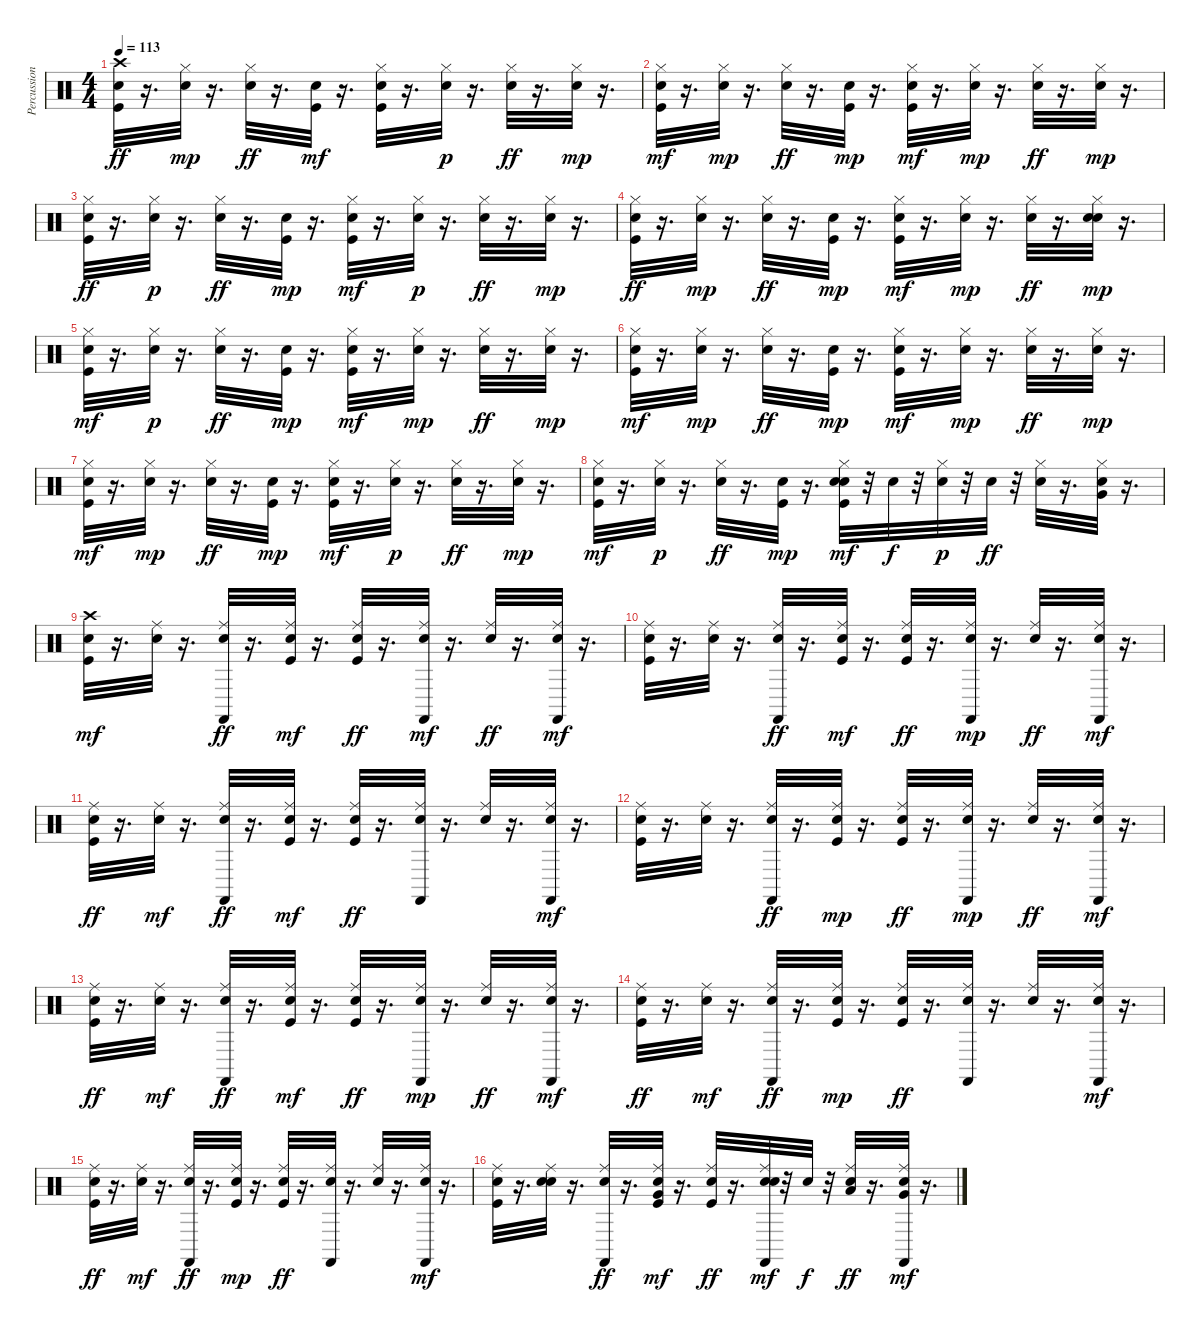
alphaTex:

\track ("Percussions" "Percussion") {instrument percussion}
\staff {score}
\articulation defaults
\ts (4 4)
\tempo 113
\clef neutral
\ks c
("Kick (hit)" "Snare (hit) 2" "Crash high (hit)").32{dy ff} r.16{d} ("Snare (hit) 2" "Hi-Hat (closed)").32{dy mp} r.16{d} ("Hand Clap (hit)" "Hi-Hat (closed)").32{dy ff} r.16{d} ("Kick (hit)" "Snare (hit) 2").32{dy mf} r.16{d} ("Kick (hit)" "Snare (hit) 2" "Hi-Hat (closed)").32 r.16{d} ("Snare (hit) 2" "Hi-Hat (closed)").32{dy p} r.16{d} ("Hand Clap (hit)" "Hi-Hat (closed)").32{dy ff} r.16{d} ("Snare (hit) 2" "Hi-Hat (closed)").32{dy mp} r.16{d} |
("Kick (hit)" "Snare (hit) 2" "Hi-Hat (closed)").32{dy mf} r.16{d} ("Snare (hit) 2" "Hi-Hat (closed)").32{dy mp} r.16{d} ("Hand Clap (hit)" "Hi-Hat (closed)").32{dy ff} r.16{d} ("Kick (hit)" "Snare (hit) 2").32{dy mp} r.16{d} ("Kick (hit)" "Snare (hit) 2" "Hi-Hat (closed)").32{dy mf} r.16{d} ("Snare (hit) 2" "Hi-Hat (closed)").32{dy mp} r.16{d} ("Hand Clap (hit)" "Hi-Hat (closed)").32{dy ff} r.16{d} ("Snare (hit) 2" "Hi-Hat (closed)").32{dy mp} r.16{d} |
("Kick (hit)" "Snare (hit) 2" "Hi-Hat (closed)").32{dy ff} r.16{d} ("Snare (hit) 2" "Hi-Hat (closed)").32{dy p} r.16{d} ("Hand Clap (hit)" "Hi-Hat (closed)").32{dy ff} r.16{d} ("Kick (hit)" "Snare (hit) 2").32{dy mp} r.16{d} ("Kick (hit)" "Snare (hit) 2" "Hi-Hat (closed)").32{dy mf} r.16{d} ("Snare (hit) 2" "Hi-Hat (closed)").32{dy p} r.16{d} ("Hand Clap (hit)" "Hi-Hat (closed)").32{dy ff} r.16{d} ("Snare (hit) 2" "Hi-Hat (closed)").32{dy mp} r.16{d} |
("Kick (hit)" "Snare (hit) 2" "Hi-Hat (closed)").32{dy ff} r.16{d} ("Snare (hit) 2" "Hi-Hat (closed)").32{dy mp} r.16{d} ("Hand Clap (hit)" "Hi-Hat (closed)").32{dy ff} r.16{d} ("Kick (hit)" "Snare (hit) 2").32{dy mp} r.16{d} ("Kick (hit)" "Snare (hit) 2" "Hi-Hat (closed)").32{dy mf} r.16{d} ("Snare (hit) 2" "Hi-Hat (closed)").32{dy mp} r.16{d} ("Hand Clap (hit)" "Hi-Hat (closed)").32{dy ff} r.16{d} ("Snare (hit) 2" "Hand Clap (hit)" "Hi-Hat (closed)").32{dy mp} r.16{d} |
("Kick (hit)" "Snare (hit) 2" "Hi-Hat (closed)").32{dy mf} r.16{d} ("Snare (hit) 2" "Hi-Hat (closed)").32{dy p} r.16{d} ("Hand Clap (hit)" "Hi-Hat (closed)").32{dy ff} r.16{d} ("Kick (hit)" "Snare (hit) 2").32{dy mp} r.16{d} ("Kick (hit)" "Snare (hit) 2" "Hi-Hat (closed)").32{dy mf} r.16{d} ("Snare (hit) 2" "Hi-Hat (closed)").32{dy mp} r.16{d} ("Hand Clap (hit)" "Hi-Hat (closed)").32{dy ff} r.16{d} ("Snare (hit) 2" "Hi-Hat (closed)").32{dy mp} r.16{d} |
("Kick (hit)" "Snare (hit) 2" "Hi-Hat (closed)").32{dy mf} r.16{d} ("Snare (hit) 2" "Hi-Hat (closed)").32{dy mp} r.16{d} ("Hand Clap (hit)" "Hi-Hat (closed)").32{dy ff} r.16{d} ("Kick (hit)" "Snare (hit) 2").32{dy mp} r.16{d} ("Kick (hit)" "Snare (hit) 2" "Hi-Hat (closed)").32{dy mf} r.16{d} ("Snare (hit) 2" "Hi-Hat (closed)").32{dy mp} r.16{d} ("Hand Clap (hit)" "Hi-Hat (closed)").32{dy ff} r.16{d} ("Snare (hit) 2" "Hi-Hat (closed)").32{dy mp} r.16{d} |
("Kick (hit)" "Snare (hit) 2" "Hi-Hat (closed)").32{dy mf} r.16{d} ("Snare (hit) 2" "Hi-Hat (closed)").32{dy mp} r.16{d} ("Hand Clap (hit)" "Hi-Hat (closed)").32{dy ff} r.16{d} ("Kick (hit)" "Snare (hit) 2").32{dy mp} r.16{d} ("Kick (hit)" "Snare (hit) 2" "Hi-Hat (closed)").32{dy mf} r.16{d} ("Snare (hit) 2" "Hi-Hat (closed)").32{dy p} r.16{d} ("Hand Clap (hit)" "Hi-Hat (closed)").32{dy ff} r.16{d} ("Snare (hit) 2" "Hi-Hat (closed)").32{dy mp} r.16{d} |
("Kick (hit)" "Snare (hit) 2" "Hi-Hat (closed)").32{dy mf} r.16{d} ("Snare (hit) 2" "Hi-Hat (closed)").32{dy p} r.16{d} ("Hand Clap (hit)" "Hi-Hat (closed)").32{dy ff} r.16{d} ("Kick (hit)" "Snare (hit) 2").32{dy mp} r.16{d} ("Kick (hit)" "Snare (hit) 2" "Hand Clap (hit)" "Hi-Hat (closed)").32{dy mf} r.32 "Snare (hit) 2".32{dy f} r.32 ("Snare (hit) 2" "Hi-Hat (closed)").32{dy p} r.32 "Snare (hit) 2".32{dy ff} r.32 ("Hand Clap (hit)" "Hi-Hat (closed)").32 r.16{d} ("Snare (hit) 2" "Hi-Hat (closed)" "Very Low Tom (hit)").32 r.16{d} |
("Kick (hit)" "Snare (hit) 2" "Crash high (hit)").32{dy mf} r.16{d} ("Snare (hit) 2" "Ride (middle)").32 r.16{d} ("Hand Clap (hit)" "Ride (middle)" "Castanets (hit)").32{dy ff} r.16{d} ("Kick (hit)" "Snare (hit) 2" "Ride (middle)").32{dy mf} r.16{d} ("Kick (hit)" "Snare (hit) 2" "Ride (middle)").32{dy ff} r.16{d} ("Snare (hit) 2" "Ride (middle)" "Castanets (hit)").32{dy mf} r.16{d} ("Hand Clap (hit)" "Ride (middle)").32{dy ff} r.16{d} ("Snare (hit) 2" "Ride (middle)" "Castanets (hit)").32{dy mf} r.16{d} |
("Kick (hit)" "Snare (hit) 2" "Ride (middle)").32 r.16{d} ("Snare (hit) 2" "Ride (middle)").32 r.16{d} ("Hand Clap (hit)" "Ride (middle)" "Castanets (hit)").32{dy ff} r.16{d} ("Kick (hit)" "Snare (hit) 2" "Ride (middle)").32{dy mf} r.16{d} ("Kick (hit)" "Snare (hit) 2" "Ride (middle)").32{dy ff} r.16{d} ("Snare (hit) 2" "Ride (middle)" "Castanets (hit)").32{dy mp} r.16{d} ("Hand Clap (hit)" "Ride (middle)").32{dy ff} r.16{d} ("Snare (hit) 2" "Ride (middle)" "Castanets (hit)").32{dy mf} r.16{d} |
("Kick (hit)" "Snare (hit) 2" "Ride (middle)").32{dy ff} r.16{d} ("Snare (hit) 2" "Ride (middle)").32{dy mf} r.16{d} ("Hand Clap (hit)" "Ride (middle)" "Castanets (hit)").32{dy ff} r.16{d} ("Kick (hit)" "Snare (hit) 2" "Ride (middle)").32{dy mf} r.16{d} ("Kick (hit)" "Snare (hit) 2" "Ride (middle)").32{dy ff} r.16{d} ("Snare (hit) 2" "Ride (middle)" "Castanets (hit)").32 r.16{d} ("Hand Clap (hit)" "Ride (middle)").32 r.16{d} ("Snare (hit) 2" "Ride (middle)" "Castanets (hit)").32{dy mf} r.16{d} |
("Kick (hit)" "Snare (hit) 2" "Ride (middle)").32 r.16{d} ("Snare (hit) 2" "Ride (middle)").32 r.16{d} ("Hand Clap (hit)" "Ride (middle)" "Castanets (hit)").32{dy ff} r.16{d} ("Kick (hit)" "Snare (hit) 2" "Ride (middle)").32{dy mp} r.16{d} ("Kick (hit)" "Snare (hit) 2" "Ride (middle)").32{dy ff} r.16{d} ("Snare (hit) 2" "Ride (middle)" "Castanets (hit)").32{dy mp} r.16{d} ("Hand Clap (hit)" "Ride (middle)").32{dy ff} r.16{d} ("Snare (hit) 2" "Ride (middle)" "Castanets (hit)").32{dy mf} r.16{d} |
("Kick (hit)" "Snare (hit) 2" "Ride (middle)").32{dy ff} r.16{d} ("Snare (hit) 2" "Ride (middle)").32{dy mf} r.16{d} ("Hand Clap (hit)" "Ride (middle)" "Castanets (hit)").32{dy ff} r.16{d} ("Kick (hit)" "Snare (hit) 2" "Ride (middle)").32{dy mf} r.16{d} ("Kick (hit)" "Snare (hit) 2" "Ride (middle)").32{dy ff} r.16{d} ("Snare (hit) 2" "Ride (middle)" "Castanets (hit)").32{dy mp} r.16{d} ("Hand Clap (hit)" "Ride (middle)").32{dy ff} r.16{d} ("Snare (hit) 2" "Ride (middle)" "Castanets (hit)").32{dy mf} r.16{d} |
("Kick (hit)" "Snare (hit) 2" "Ride (middle)").32{dy ff} r.16{d} ("Snare (hit) 2" "Ride (middle)").32{dy mf} r.16{d} ("Hand Clap (hit)" "Ride (middle)" "Castanets (hit)").32{dy ff} r.16{d} ("Kick (hit)" "Snare (hit) 2" "Ride (middle)").32{dy mp} r.16{d} ("Kick (hit)" "Snare (hit) 2" "Ride (middle)").32{dy ff} r.16{d} ("Snare (hit) 2" "Ride (middle)" "Castanets (hit)").32 r.16{d} ("Hand Clap (hit)" "Ride (middle)").32 r.16{d} ("Snare (hit) 2" "Ride (middle)" "Castanets (hit)").32{dy mf} r.16{d} |
("Kick (hit)" "Snare (hit) 2" "Ride (middle)").32{dy ff} r.16{d} ("Snare (hit) 2" "Ride (middle)").32{dy mf} r.16{d} ("Hand Clap (hit)" "Ride (middle)" "Castanets (hit)").32{dy ff} r.16{d} ("Kick (hit)" "Snare (hit) 2" "Ride (middle)").32{dy mp} r.16{d} ("Kick (hit)" "Snare (hit) 2" "Ride (middle)").32{dy ff} r.16{d} ("Snare (hit) 2" "Ride (middle)" "Castanets (hit)").32 r.16{d} ("Hand Clap (hit)" "Ride (middle)").32 r.16{d} ("Snare (hit) 2" "Ride (middle)" "Castanets (hit)").32{dy mf} r.16{d} |
("Kick (hit)" "Snare (hit) 2" "Ride (middle)").32 r.16{d} ("Snare (hit) 2" "Hand Clap (hit)" "Ride (middle)").32 r.16{d} ("Hand Clap (hit)" "Ride (middle)" "Castanets (hit)").32{dy ff} r.16{d} ("Kick (hit)" "Snare (hit) 2" "Very Low Tom (hit)" "Ride (middle)").32{dy mf} r.16{d} ("Kick (hit)" "Snare (hit) 2" "Ride (middle)").32{dy ff} r.16{d} ("Snare (hit) 2" "Hand Clap (hit)" "Ride (middle)" "Castanets (hit)").32{dy mf} r.32 "Hand Clap (hit)".32{dy f} r.32 ("Hand Clap (hit)" "Low Tom (hit)" "Ride (middle)").32{dy ff} r.16{d} ("Snare (hit) 2" "Very Low Tom (hit)" "Ride (middle)" "Castanets (hit)").32{dy mf} r.16{d}
